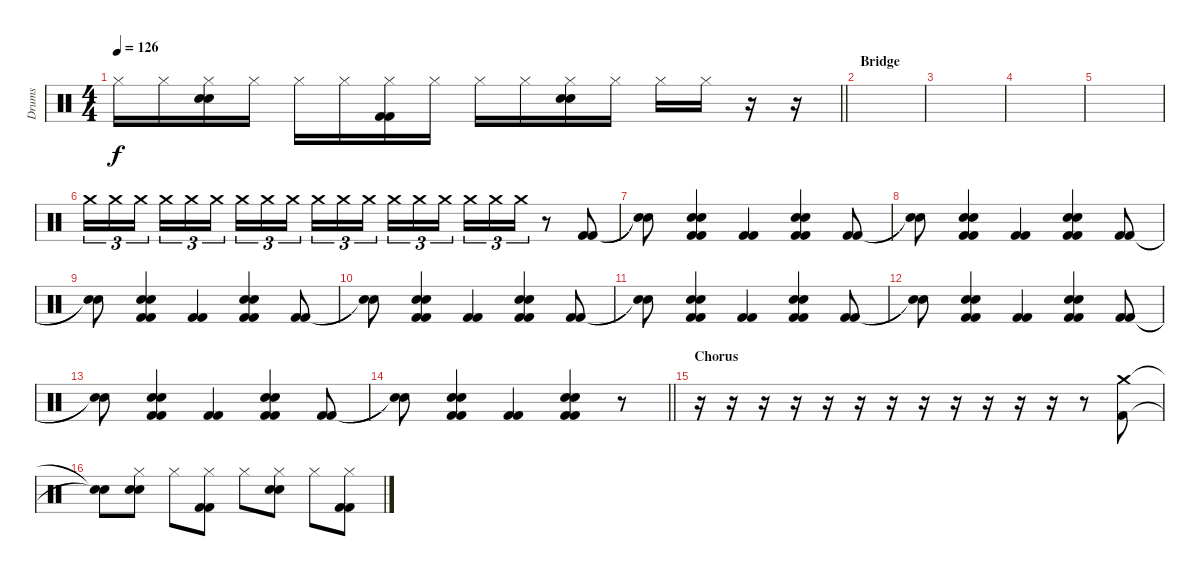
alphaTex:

\track ("Drums" "Drums") {instrument percussion}
\staff {score}
\articulation defaults
\ts (4 4)
\tempo 126
\clef neutral
\barLineRight lightlight
\ks c "Hi-Hat (closed)".16{dy f} "Hi-Hat (closed)".16
("Electric Snare (hit)" "Hi-Hat (closed)" "Electric Snare (hit)").16 "Hi-Hat (closed)".16 "Hi-Hat (closed)".16 "Hi-Hat (closed)".16 ("Kick (hit) 2" "Hi-Hat (closed)" "Kick (hit) 2").16 "Hi-Hat (closed)".16 "Hi-Hat (closed)".16 "Hi-Hat (closed)".16 ("Electric Snare (hit)" "Hi-Hat (closed)" "Electric Snare (hit)").16 "Hi-Hat (closed)".16 "Hi-Hat (closed)".16 "Hi-Hat (closed)".16 r.16 r.16 |
\section ("" "Bridge")
|
|
|
|
"Crash medium (hit)".16{tu (3 2) volume 9} "Crash medium (hit)".16{tu (3 2)} "Crash medium (hit)".16{tu (3 2) beam splitsecondary} "Crash medium (hit)".16{tu (3 2)} "Crash medium (hit)".16{tu (3 2)} "Crash medium (hit)".16{tu (3 2)} "Crash medium (hit)".16{tu (3 2)} "Crash medium (hit)".16{tu (3 2)} "Crash medium (hit)".16{tu (3 2) beam splitsecondary} "Crash medium (hit)".16{tu (3 2)} "Crash medium (hit)".16{tu (3 2)} "Crash medium (hit)".16{tu (3 2)} "Crash medium (hit)".16{tu (3 2)} "Crash medium (hit)".16{tu (3 2)} "Crash medium (hit)".16{tu (3 2) beam splitsecondary} "Crash medium (hit)".16{tu (3 2)} "Crash medium (hit)".16{tu (3 2)} "Crash medium (hit)".16{tu (3 2)} r.8{volume 13} ("Kick (hit) 2" "Kick (hit) 2").8 |
("Hand Clap (hit)"{t} "Snare (hit)"{t}).8 ("Kick (hit) 2" "Hand Clap (hit)" "Hand Clap (hit)" "Kick (hit) 2").4 ("Kick (hit) 2" "Kick (hit) 2").4 ("Kick (hit) 2" "Hand Clap (hit)" "Hand Clap (hit)" "Kick (hit) 2").4 ("Kick (hit) 2" "Kick (hit) 2").8 |
("Hand Clap (hit)"{t} "Snare (hit)"{t}).8 ("Kick (hit) 2" "Hand Clap (hit)" "Hand Clap (hit)" "Kick (hit) 2").4 ("Kick (hit) 2" "Kick (hit) 2").4 ("Kick (hit) 2" "Hand Clap (hit)" "Hand Clap (hit)" "Kick (hit) 2").4 ("Kick (hit) 2" "Kick (hit) 2").8 |
("Hand Clap (hit)"{t} "Snare (hit)"{t}).8 ("Kick (hit) 2" "Hand Clap (hit)" "Hand Clap (hit)" "Kick (hit) 2").4 ("Kick (hit) 2" "Kick (hit) 2").4 ("Kick (hit) 2" "Hand Clap (hit)" "Hand Clap (hit)" "Kick (hit) 2").4 ("Kick (hit) 2" "Kick (hit) 2").8 |
("Hand Clap (hit)"{t} "Snare (hit)"{t}).8 ("Kick (hit) 2" "Hand Clap (hit)" "Hand Clap (hit)" "Kick (hit) 2").4 ("Kick (hit) 2" "Kick (hit) 2").4 ("Kick (hit) 2" "Hand Clap (hit)" "Hand Clap (hit)" "Kick (hit) 2").4 ("Kick (hit) 2" "Kick (hit) 2").8 |
("Hand Clap (hit)"{t} "Snare (hit)"{t}).8 ("Kick (hit) 2" "Hand Clap (hit)" "Hand Clap (hit)" "Kick (hit) 2").4 ("Kick (hit) 2" "Kick (hit) 2").4 ("Kick (hit) 2" "Hand Clap (hit)" "Hand Clap (hit)" "Kick (hit) 2").4 ("Kick (hit) 2" "Kick (hit) 2").8 |
("Hand Clap (hit)"{t} "Snare (hit)"{t}).8 ("Kick (hit) 2" "Hand Clap (hit)" "Hand Clap (hit)" "Kick (hit) 2").4 ("Kick (hit) 2" "Kick (hit) 2").4 ("Kick (hit) 2" "Hand Clap (hit)" "Hand Clap (hit)" "Kick (hit) 2").4 ("Kick (hit) 2" "Kick (hit) 2").8 |
("Hand Clap (hit)"{t} "Snare (hit)"{t}).8 ("Kick (hit) 2" "Hand Clap (hit)" "Hand Clap (hit)" "Kick (hit) 2").4 ("Kick (hit) 2" "Kick (hit) 2").4 ("Kick (hit) 2" "Hand Clap (hit)" "Hand Clap (hit)" "Kick (hit) 2").4 ("Kick (hit) 2" "Kick (hit) 2").8 |
\barLineRight lightlight
("Hand Clap (hit)"{t} "Snare (hit)"{t}).8 ("Kick (hit) 2" "Hand Clap (hit)" "Hand Clap (hit)" "Kick (hit) 2").4 ("Kick (hit) 2" "Kick (hit) 2").4 ("Kick (hit) 2" "Hand Clap (hit)" "Hand Clap (hit)" "Kick (hit) 2").4 r.8 |
\section ("" "Chorus")
r.16 r.16 r.16 r.16 r.16 r.16 r.16 r.16 r.16 r.16 r.16 r.16 r.8 ("Crash medium (hit)" "Kick (hit) 2").8 |
("Snare (hit)"{t} "Snare (hit)"{t}).8 ("Electric Snare (hit)" "Hi-Hat (closed)" "Electric Snare (hit)").8 "Hi-Hat (closed)".8 ("Kick (hit) 2" "Hi-Hat (closed)" "Kick (hit) 2").8 "Hi-Hat (closed)".8 ("Electric Snare (hit)" "Hi-Hat (closed)" "Electric Snare (hit)").8 "Hi-Hat (closed)".8 ("Kick (hit) 2" "Hi-Hat (closed)" "Kick (hit) 2").8
